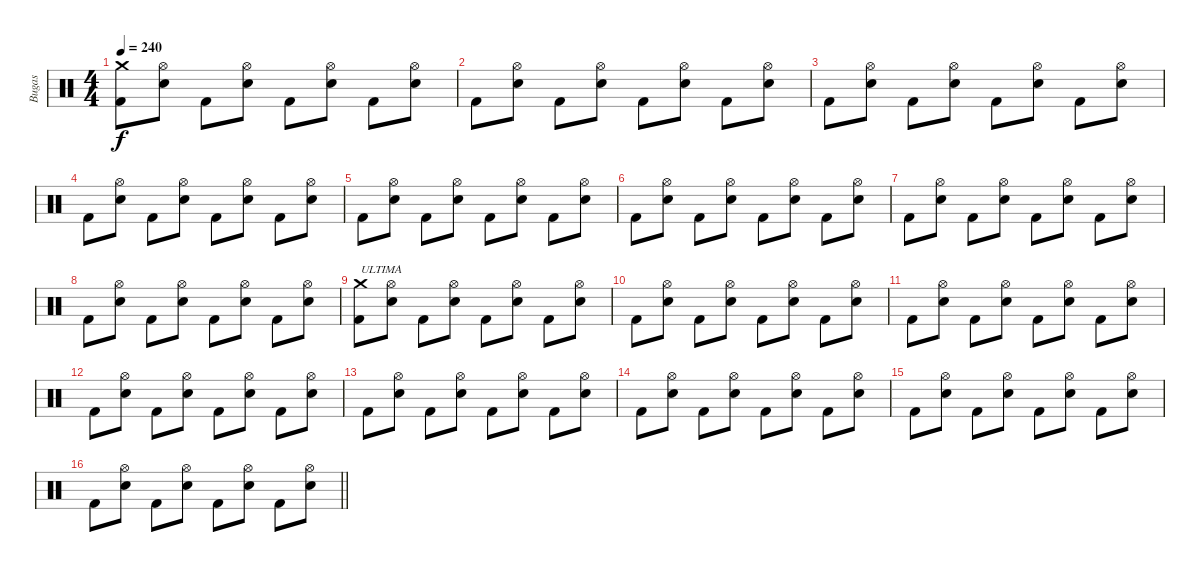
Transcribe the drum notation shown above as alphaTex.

\track ("Bugas" "Bugas") {instrument percussion}
\staff {score}
\articulation defaults
\ts (4 4)
\tempo 240
\clef neutral
\ks c
("Crash medium (hit)" "Kick (hit) 2").8{dy f} ("Hi-Hat (open)" "Electric Snare (hit)").8 "Kick (hit) 2".8 ("Hi-Hat (open)" "Electric Snare (hit)").8 "Kick (hit) 2".8 ("Hi-Hat (open)" "Electric Snare (hit)").8 "Kick (hit) 2".8 ("Hi-Hat (open)" "Electric Snare (hit)").8 |
"Kick (hit) 2".8 ("Hi-Hat (open)" "Electric Snare (hit)").8 "Kick (hit) 2".8 ("Hi-Hat (open)" "Electric Snare (hit)").8 "Kick (hit) 2".8 ("Hi-Hat (open)" "Electric Snare (hit)").8 "Kick (hit) 2".8 ("Hi-Hat (open)" "Electric Snare (hit)").8 |
"Kick (hit) 2".8 ("Hi-Hat (open)" "Electric Snare (hit)").8 "Kick (hit) 2".8 ("Hi-Hat (open)" "Electric Snare (hit)").8 "Kick (hit) 2".8 ("Hi-Hat (open)" "Electric Snare (hit)").8 "Kick (hit) 2".8 ("Hi-Hat (open)" "Electric Snare (hit)").8 |
"Kick (hit) 2".8 ("Hi-Hat (open)" "Electric Snare (hit)").8 "Kick (hit) 2".8 ("Hi-Hat (open)" "Electric Snare (hit)").8 "Kick (hit) 2".8 ("Hi-Hat (open)" "Electric Snare (hit)").8 "Kick (hit) 2".8 ("Hi-Hat (open)" "Electric Snare (hit)").8 |
"Kick (hit) 2".8 ("Hi-Hat (open)" "Electric Snare (hit)").8 "Kick (hit) 2".8 ("Hi-Hat (open)" "Electric Snare (hit)").8 "Kick (hit) 2".8 ("Hi-Hat (open)" "Electric Snare (hit)").8 "Kick (hit) 2".8 ("Hi-Hat (open)" "Electric Snare (hit)").8 |
"Kick (hit) 2".8 ("Hi-Hat (open)" "Electric Snare (hit)").8 "Kick (hit) 2".8 ("Hi-Hat (open)" "Electric Snare (hit)").8 "Kick (hit) 2".8 ("Hi-Hat (open)" "Electric Snare (hit)").8 "Kick (hit) 2".8 ("Hi-Hat (open)" "Electric Snare (hit)").8 |
"Kick (hit) 2".8 ("Hi-Hat (open)" "Electric Snare (hit)").8 "Kick (hit) 2".8 ("Hi-Hat (open)" "Electric Snare (hit)").8 "Kick (hit) 2".8 ("Hi-Hat (open)" "Electric Snare (hit)").8 "Kick (hit) 2".8 ("Hi-Hat (open)" "Electric Snare (hit)").8 |
"Kick (hit) 2".8 ("Hi-Hat (open)" "Electric Snare (hit)").8 "Kick (hit) 2".8 ("Hi-Hat (open)" "Electric Snare (hit)").8 "Kick (hit) 2".8 ("Hi-Hat (open)" "Electric Snare (hit)").8 "Kick (hit) 2".8 ("Hi-Hat (open)" "Electric Snare (hit)").8 |
("Crash medium (hit)" "Kick (hit) 2").8{txt "ULTIMA"} ("Hi-Hat (open)" "Electric Snare (hit)").8 "Kick (hit) 2".8 ("Hi-Hat (open)" "Electric Snare (hit)").8 "Kick (hit) 2".8 ("Hi-Hat (open)" "Electric Snare (hit)").8 "Kick (hit) 2".8 ("Hi-Hat (open)" "Electric Snare (hit)").8 |
"Kick (hit) 2".8 ("Hi-Hat (open)" "Electric Snare (hit)").8 "Kick (hit) 2".8 ("Hi-Hat (open)" "Electric Snare (hit)").8 "Kick (hit) 2".8 ("Hi-Hat (open)" "Electric Snare (hit)").8 "Kick (hit) 2".8 ("Hi-Hat (open)" "Electric Snare (hit)").8 |
"Kick (hit) 2".8 ("Hi-Hat (open)" "Electric Snare (hit)").8 "Kick (hit) 2".8 ("Hi-Hat (open)" "Electric Snare (hit)").8 "Kick (hit) 2".8 ("Hi-Hat (open)" "Electric Snare (hit)").8 "Kick (hit) 2".8 ("Hi-Hat (open)" "Electric Snare (hit)").8 |
"Kick (hit) 2".8 ("Hi-Hat (open)" "Electric Snare (hit)").8 "Kick (hit) 2".8 ("Hi-Hat (open)" "Electric Snare (hit)").8 "Kick (hit) 2".8 ("Hi-Hat (open)" "Electric Snare (hit)").8 "Kick (hit) 2".8 ("Hi-Hat (open)" "Electric Snare (hit)").8 |
"Kick (hit) 2".8 ("Hi-Hat (open)" "Electric Snare (hit)").8 "Kick (hit) 2".8 ("Hi-Hat (open)" "Electric Snare (hit)").8 "Kick (hit) 2".8 ("Hi-Hat (open)" "Electric Snare (hit)").8 "Kick (hit) 2".8 ("Hi-Hat (open)" "Electric Snare (hit)").8 |
"Kick (hit) 2".8 ("Hi-Hat (open)" "Electric Snare (hit)").8 "Kick (hit) 2".8 ("Hi-Hat (open)" "Electric Snare (hit)").8 "Kick (hit) 2".8 ("Hi-Hat (open)" "Electric Snare (hit)").8 "Kick (hit) 2".8 ("Hi-Hat (open)" "Electric Snare (hit)").8 |
"Kick (hit) 2".8 ("Hi-Hat (open)" "Electric Snare (hit)").8 "Kick (hit) 2".8 ("Hi-Hat (open)" "Electric Snare (hit)").8 "Kick (hit) 2".8 ("Hi-Hat (open)" "Electric Snare (hit)").8 "Kick (hit) 2".8 ("Hi-Hat (open)" "Electric Snare (hit)").8 |
\barLineRight lightlight "Kick (hit) 2".8
("Hi-Hat (open)" "Electric Snare (hit)").8 "Kick (hit) 2".8 ("Hi-Hat (open)" "Electric Snare (hit)").8 "Kick (hit) 2".8 ("Hi-Hat (open)" "Electric Snare (hit)").8 "Kick (hit) 2".8 ("Hi-Hat (open)" "Electric Snare (hit)").8
